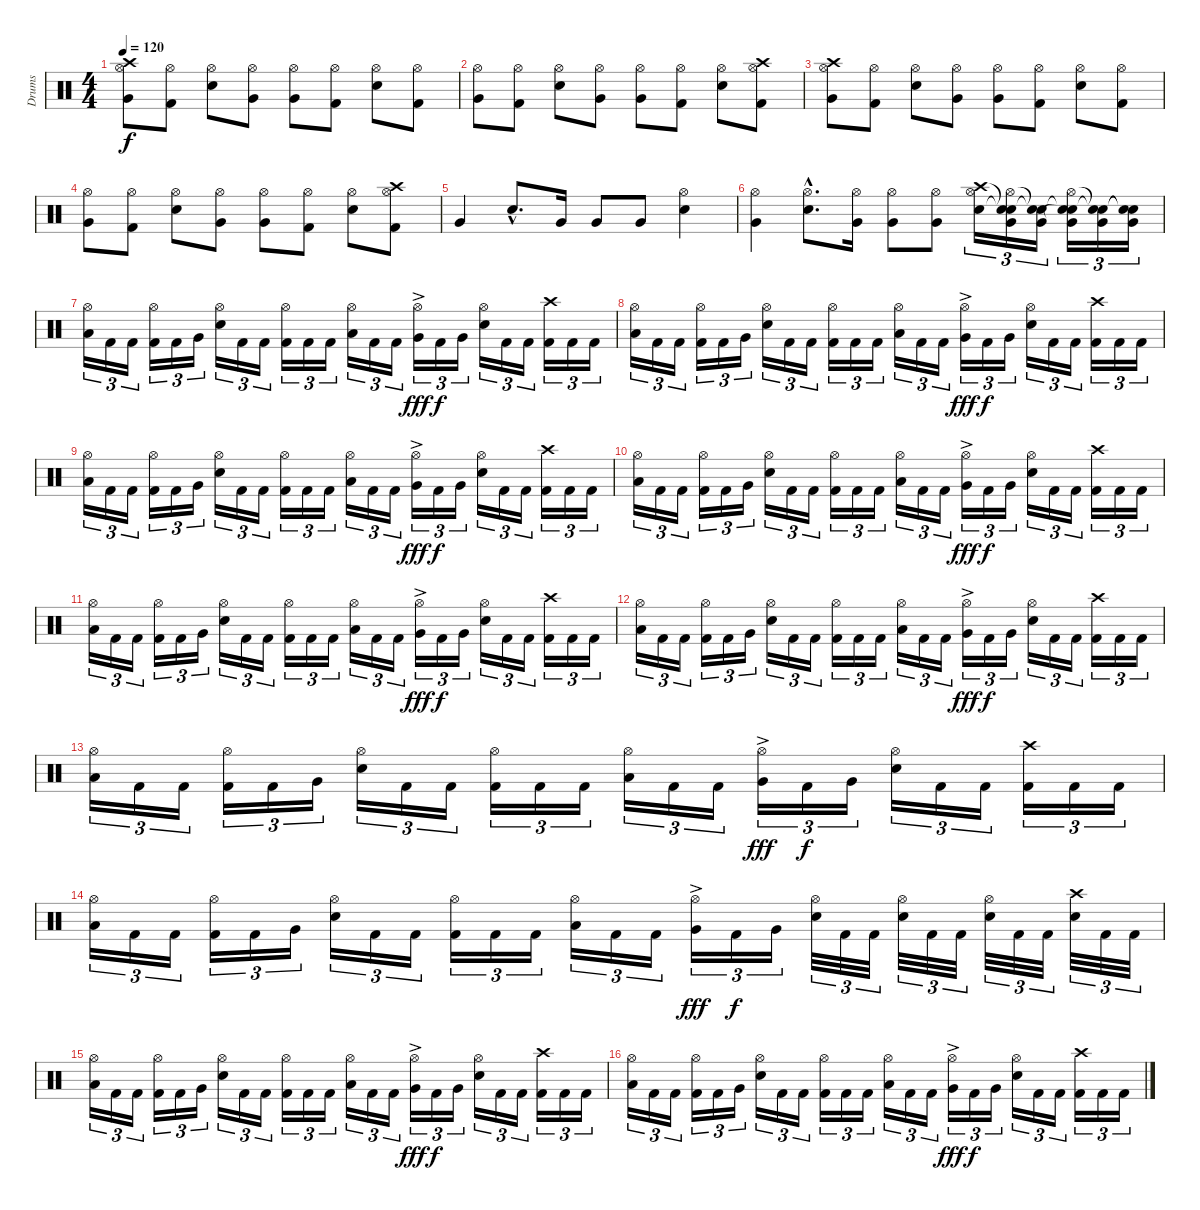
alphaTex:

\track ("Drums" "Drums") {instrument percussion}
\staff {score}
\articulation defaults
\ts (4 4)
\tempo 120
\clef neutral
\ks c
("Crash high (hit)" "Hi-Hat (open)" "Very Low Tom (hit)").8{dy f} ("Hi-Hat (open)" "Kick (hit) 2").8 ("Hi-Hat (open)" "Electric Snare (hit)").8 ("Hi-Hat (open)" "Very Low Tom (hit)").8 ("Hi-Hat (open)" "Very Low Tom (hit)").8 ("Hi-Hat (open)" "Kick (hit) 2").8 ("Hi-Hat (open)" "Electric Snare (hit)").8 ("Hi-Hat (open)" "Kick (hit) 2").8 |
("Hi-Hat (open)" "Very Low Tom (hit)").8 ("Hi-Hat (open)" "Kick (hit) 2").8 ("Hi-Hat (open)" "Electric Snare (hit)").8 ("Hi-Hat (open)" "Very Low Tom (hit)").8 ("Hi-Hat (open)" "Very Low Tom (hit)").8 ("Hi-Hat (open)" "Kick (hit) 2").8 ("Hi-Hat (open)" "Electric Snare (hit)").8 ("Crash high (hit)" "Hi-Hat (open)" "Kick (hit) 2").8 |
("Crash high (hit)" "Hi-Hat (open)" "Very Low Tom (hit)").8 ("Hi-Hat (open)" "Kick (hit) 2").8 ("Hi-Hat (open)" "Electric Snare (hit)").8 ("Hi-Hat (open)" "Very Low Tom (hit)").8 ("Hi-Hat (open)" "Very Low Tom (hit)").8 ("Hi-Hat (open)" "Kick (hit) 2").8 ("Hi-Hat (open)" "Electric Snare (hit)").8 ("Hi-Hat (open)" "Kick (hit) 2").8 |
("Hi-Hat (open)" "Very Low Tom (hit)").8 ("Hi-Hat (open)" "Kick (hit) 2").8 ("Hi-Hat (open)" "Electric Snare (hit)").8 ("Hi-Hat (open)" "Very Low Tom (hit)").8 ("Hi-Hat (open)" "Very Low Tom (hit)").8 ("Hi-Hat (open)" "Kick (hit) 2").8 ("Hi-Hat (open)" "Electric Snare (hit)").8 ("Crash high (hit)" "Hi-Hat (open)" "Kick (hit) 2").8 |
"Very Low Tom (hit)".4 "Electric Snare (hit)"{hac}.8{d} "Very Low Tom (hit)".16 "Very Low Tom (hit)".8 "Very Low Tom (hit)".8 ("Hi-Hat (open)" "Electric Snare (hit)").4 |
("Hi-Hat (open)" "Very Low Tom (hit)").4 ("Hi-Hat (open)"{hac} "Electric Snare (hit)"{hac}).8{d} ("Hi-Hat (open)" "Very Low Tom (hit)").16 ("Hi-Hat (open)" "Very Low Tom (hit)").8 ("Hi-Hat (open)" "Very Low Tom (hit)").8 ("Crash high (hit)" "Hi-Hat (open)" "Electric Snare (hit)").16{tu (3 2)} ("Snare (hit)"{t} "Hi-Hat (open)" "Snare (hit)"{t} "Very Low Tom (hit)").16{tu (3 2)} ("Snare (hit)"{t} "Snare (hit)"{t} "Very Low Tom (hit)").16{tu (3 2)} ("Snare (hit)"{t} "Hi-Hat (open)" "Snare (hit)"{t} "Very Low Tom (hit)").16{tu (3 2)} ("Snare (hit)"{t} "Snare (hit)"{t} "Very Low Tom (hit)").16{tu (3 2)} ("Snare (hit)"{t} "Snare (hit)"{t} "Very Low Tom (hit)").16{tu (3 2)} |
("Hi-Hat (open)" "Low Tom (hit)").16{tu (3 2)} "Kick (hit) 2".16{tu (3 2)} "Kick (hit) 2".16{tu (3 2)} ("Hi-Hat (open)" "Kick (hit) 2").16{tu (3 2)} "Kick (hit) 2".16{tu (3 2)} "Very Low Tom (hit)".16{tu (3 2)} ("Hi-Hat (open)" "Electric Snare (hit)").16{tu (3 2)} "Kick (hit) 2".16{tu (3 2)} "Kick (hit) 2".16{tu (3 2)} ("Hi-Hat (open)" "Kick (hit) 2").16{tu (3 2)} "Kick (hit) 2".16{tu (3 2)} "Kick (hit) 2".16{tu (3 2)} ("Hi-Hat (open)" "Low Tom (hit)").16{tu (3 2)} "Kick (hit) 2".16{tu (3 2)} "Kick (hit) 2".16{tu (3 2)} ("Hi-Hat (open)" "Very Low Tom (hit)"{ac}).16{tu (3 2) dy fff} "Kick (hit) 2".16{tu (3 2) dy f} "Very Low Tom (hit)".16{tu (3 2)} ("Hi-Hat (open)" "Electric Snare (hit)").16{tu (3 2)} "Kick (hit) 2".16{tu (3 2)} "Kick (hit) 2".16{tu (3 2)} ("Crash high (hit)" "Kick (hit) 2").16{tu (3 2)} "Kick (hit) 2".16{tu (3 2)} "Kick (hit) 2".16{tu (3 2)} |
("Hi-Hat (open)" "Low Tom (hit)").16{tu (3 2)} "Kick (hit) 2".16{tu (3 2)} "Kick (hit) 2".16{tu (3 2)} ("Hi-Hat (open)" "Kick (hit) 2").16{tu (3 2)} "Kick (hit) 2".16{tu (3 2)} "Very Low Tom (hit)".16{tu (3 2)} ("Hi-Hat (open)" "Electric Snare (hit)").16{tu (3 2)} "Kick (hit) 2".16{tu (3 2)} "Kick (hit) 2".16{tu (3 2)} ("Hi-Hat (open)" "Kick (hit) 2").16{tu (3 2)} "Kick (hit) 2".16{tu (3 2)} "Kick (hit) 2".16{tu (3 2)} ("Hi-Hat (open)" "Low Tom (hit)").16{tu (3 2)} "Kick (hit) 2".16{tu (3 2)} "Kick (hit) 2".16{tu (3 2)} ("Hi-Hat (open)" "Very Low Tom (hit)"{ac}).16{tu (3 2) dy fff} "Kick (hit) 2".16{tu (3 2) dy f} "Very Low Tom (hit)".16{tu (3 2)} ("Hi-Hat (open)" "Electric Snare (hit)").16{tu (3 2)} "Kick (hit) 2".16{tu (3 2)} "Kick (hit) 2".16{tu (3 2)} ("Crash high (hit)" "Kick (hit) 2").16{tu (3 2)} "Kick (hit) 2".16{tu (3 2)} "Kick (hit) 2".16{tu (3 2)} |
("Hi-Hat (open)" "Low Tom (hit)").16{tu (3 2)} "Kick (hit) 2".16{tu (3 2)} "Kick (hit) 2".16{tu (3 2)} ("Hi-Hat (open)" "Kick (hit) 2").16{tu (3 2)} "Kick (hit) 2".16{tu (3 2)} "Very Low Tom (hit)".16{tu (3 2)} ("Hi-Hat (open)" "Electric Snare (hit)").16{tu (3 2)} "Kick (hit) 2".16{tu (3 2)} "Kick (hit) 2".16{tu (3 2)} ("Hi-Hat (open)" "Kick (hit) 2").16{tu (3 2)} "Kick (hit) 2".16{tu (3 2)} "Kick (hit) 2".16{tu (3 2)} ("Hi-Hat (open)" "Low Tom (hit)").16{tu (3 2)} "Kick (hit) 2".16{tu (3 2)} "Kick (hit) 2".16{tu (3 2)} ("Hi-Hat (open)" "Very Low Tom (hit)"{ac}).16{tu (3 2) dy fff} "Kick (hit) 2".16{tu (3 2) dy f} "Very Low Tom (hit)".16{tu (3 2)} ("Hi-Hat (open)" "Electric Snare (hit)").16{tu (3 2)} "Kick (hit) 2".16{tu (3 2)} "Kick (hit) 2".16{tu (3 2)} ("Crash high (hit)" "Kick (hit) 2").16{tu (3 2)} "Kick (hit) 2".16{tu (3 2)} "Kick (hit) 2".16{tu (3 2)} |
("Hi-Hat (open)" "Low Tom (hit)").16{tu (3 2)} "Kick (hit) 2".16{tu (3 2)} "Kick (hit) 2".16{tu (3 2)} ("Hi-Hat (open)" "Kick (hit) 2").16{tu (3 2)} "Kick (hit) 2".16{tu (3 2)} "Very Low Tom (hit)".16{tu (3 2)} ("Hi-Hat (open)" "Electric Snare (hit)").16{tu (3 2)} "Kick (hit) 2".16{tu (3 2)} "Kick (hit) 2".16{tu (3 2)} ("Hi-Hat (open)" "Kick (hit) 2").16{tu (3 2)} "Kick (hit) 2".16{tu (3 2)} "Kick (hit) 2".16{tu (3 2)} ("Hi-Hat (open)" "Low Tom (hit)").16{tu (3 2)} "Kick (hit) 2".16{tu (3 2)} "Kick (hit) 2".16{tu (3 2)} ("Hi-Hat (open)" "Very Low Tom (hit)"{ac}).16{tu (3 2) dy fff} "Kick (hit) 2".16{tu (3 2) dy f} "Very Low Tom (hit)".16{tu (3 2)} ("Hi-Hat (open)" "Electric Snare (hit)").16{tu (3 2)} "Kick (hit) 2".16{tu (3 2)} "Kick (hit) 2".16{tu (3 2)} ("Crash high (hit)" "Kick (hit) 2").16{tu (3 2)} "Kick (hit) 2".16{tu (3 2)} "Kick (hit) 2".16{tu (3 2)} |
("Hi-Hat (open)" "Low Tom (hit)").16{tu (3 2)} "Kick (hit) 2".16{tu (3 2)} "Kick (hit) 2".16{tu (3 2)} ("Hi-Hat (open)" "Kick (hit) 2").16{tu (3 2)} "Kick (hit) 2".16{tu (3 2)} "Very Low Tom (hit)".16{tu (3 2)} ("Hi-Hat (open)" "Electric Snare (hit)").16{tu (3 2)} "Kick (hit) 2".16{tu (3 2)} "Kick (hit) 2".16{tu (3 2)} ("Hi-Hat (open)" "Kick (hit) 2").16{tu (3 2)} "Kick (hit) 2".16{tu (3 2)} "Kick (hit) 2".16{tu (3 2)} ("Hi-Hat (open)" "Low Tom (hit)").16{tu (3 2)} "Kick (hit) 2".16{tu (3 2)} "Kick (hit) 2".16{tu (3 2)} ("Hi-Hat (open)" "Very Low Tom (hit)"{ac}).16{tu (3 2) dy fff} "Kick (hit) 2".16{tu (3 2) dy f} "Very Low Tom (hit)".16{tu (3 2)} ("Hi-Hat (open)" "Electric Snare (hit)").16{tu (3 2)} "Kick (hit) 2".16{tu (3 2)} "Kick (hit) 2".16{tu (3 2)} ("Crash high (hit)" "Kick (hit) 2").16{tu (3 2)} "Kick (hit) 2".16{tu (3 2)} "Kick (hit) 2".16{tu (3 2)} |
("Hi-Hat (open)" "Low Tom (hit)").16{tu (3 2)} "Kick (hit) 2".16{tu (3 2)} "Kick (hit) 2".16{tu (3 2)} ("Hi-Hat (open)" "Kick (hit) 2").16{tu (3 2)} "Kick (hit) 2".16{tu (3 2)} "Very Low Tom (hit)".16{tu (3 2)} ("Hi-Hat (open)" "Electric Snare (hit)").16{tu (3 2)} "Kick (hit) 2".16{tu (3 2)} "Kick (hit) 2".16{tu (3 2)} ("Hi-Hat (open)" "Kick (hit) 2").16{tu (3 2)} "Kick (hit) 2".16{tu (3 2)} "Kick (hit) 2".16{tu (3 2)} ("Hi-Hat (open)" "Low Tom (hit)").16{tu (3 2)} "Kick (hit) 2".16{tu (3 2)} "Kick (hit) 2".16{tu (3 2)} ("Hi-Hat (open)" "Very Low Tom (hit)"{ac}).16{tu (3 2) dy fff} "Kick (hit) 2".16{tu (3 2) dy f} "Very Low Tom (hit)".16{tu (3 2)} ("Hi-Hat (open)" "Electric Snare (hit)").16{tu (3 2)} "Kick (hit) 2".16{tu (3 2)} "Kick (hit) 2".16{tu (3 2)} ("Crash high (hit)" "Kick (hit) 2").16{tu (3 2)} "Kick (hit) 2".16{tu (3 2)} "Kick (hit) 2".16{tu (3 2)} |
("Hi-Hat (open)" "Low Tom (hit)").16{tu (3 2)} "Kick (hit) 2".16{tu (3 2)} "Kick (hit) 2".16{tu (3 2)} ("Hi-Hat (open)" "Kick (hit) 2").16{tu (3 2)} "Kick (hit) 2".16{tu (3 2)} "Very Low Tom (hit)".16{tu (3 2)} ("Hi-Hat (open)" "Electric Snare (hit)").16{tu (3 2)} "Kick (hit) 2".16{tu (3 2)} "Kick (hit) 2".16{tu (3 2)} ("Hi-Hat (open)" "Kick (hit) 2").16{tu (3 2)} "Kick (hit) 2".16{tu (3 2)} "Kick (hit) 2".16{tu (3 2)} ("Hi-Hat (open)" "Low Tom (hit)").16{tu (3 2)} "Kick (hit) 2".16{tu (3 2)} "Kick (hit) 2".16{tu (3 2)} ("Hi-Hat (open)" "Very Low Tom (hit)"{ac}).16{tu (3 2) dy fff} "Kick (hit) 2".16{tu (3 2) dy f} "Very Low Tom (hit)".16{tu (3 2)} ("Hi-Hat (open)" "Electric Snare (hit)").16{tu (3 2)} "Kick (hit) 2".16{tu (3 2)} "Kick (hit) 2".16{tu (3 2)} ("Crash high (hit)" "Kick (hit) 2").16{tu (3 2)} "Kick (hit) 2".16{tu (3 2)} "Kick (hit) 2".16{tu (3 2)} |
("Hi-Hat (open)" "Low Tom (hit)").16{tu (3 2)} "Kick (hit) 2".16{tu (3 2)} "Kick (hit) 2".16{tu (3 2)} ("Hi-Hat (open)" "Kick (hit) 2").16{tu (3 2)} "Kick (hit) 2".16{tu (3 2)} "Very Low Tom (hit)".16{tu (3 2)} ("Hi-Hat (open)" "Electric Snare (hit)").16{tu (3 2)} "Kick (hit) 2".16{tu (3 2)} "Kick (hit) 2".16{tu (3 2)} ("Hi-Hat (open)" "Kick (hit) 2").16{tu (3 2)} "Kick (hit) 2".16{tu (3 2)} "Kick (hit) 2".16{tu (3 2)} ("Hi-Hat (open)" "Low Tom (hit)").16{tu (3 2)} "Kick (hit) 2".16{tu (3 2)} "Kick (hit) 2".16{tu (3 2)} ("Hi-Hat (open)" "Very Low Tom (hit)"{ac}).16{tu (3 2) dy fff} "Kick (hit) 2".16{tu (3 2) dy f} "Very Low Tom (hit)".16{tu (3 2)} ("Hi-Hat (open)" "Electric Snare (hit)").32{tu (3 2)} "Kick (hit) 2".32{tu (3 2)} "Kick (hit) 2".32{tu (3 2)} ("Hi-Hat (open)" "Electric Snare (hit)").32{tu (3 2)} "Kick (hit) 2".32{tu (3 2)} "Kick (hit) 2".32{tu (3 2)} ("Hi-Hat (open)" "Electric Snare (hit)").32{tu (3 2)} "Kick (hit) 2".32{tu (3 2)} "Kick (hit) 2".32{tu (3 2)} ("Crash high (hit)" "Electric Snare (hit)").32{tu (3 2)} "Kick (hit) 2".32{tu (3 2)} "Kick (hit) 2".32{tu (3 2)} |
("Hi-Hat (open)" "Low Tom (hit)").16{tu (3 2)} "Kick (hit) 2".16{tu (3 2)} "Kick (hit) 2".16{tu (3 2)} ("Hi-Hat (open)" "Kick (hit) 2").16{tu (3 2)} "Kick (hit) 2".16{tu (3 2)} "Very Low Tom (hit)".16{tu (3 2)} ("Hi-Hat (open)" "Electric Snare (hit)").16{tu (3 2)} "Kick (hit) 2".16{tu (3 2)} "Kick (hit) 2".16{tu (3 2)} ("Hi-Hat (open)" "Kick (hit) 2").16{tu (3 2)} "Kick (hit) 2".16{tu (3 2)} "Kick (hit) 2".16{tu (3 2)} ("Hi-Hat (open)" "Low Tom (hit)").16{tu (3 2)} "Kick (hit) 2".16{tu (3 2)} "Kick (hit) 2".16{tu (3 2)} ("Hi-Hat (open)" "Very Low Tom (hit)"{ac}).16{tu (3 2) dy fff} "Kick (hit) 2".16{tu (3 2) dy f} "Very Low Tom (hit)".16{tu (3 2)} ("Hi-Hat (open)" "Electric Snare (hit)").16{tu (3 2)} "Kick (hit) 2".16{tu (3 2)} "Kick (hit) 2".16{tu (3 2)} ("Crash high (hit)" "Kick (hit) 2").16{tu (3 2)} "Kick (hit) 2".16{tu (3 2)} "Kick (hit) 2".16{tu (3 2)} |
("Hi-Hat (open)" "Low Tom (hit)").16{tu (3 2)} "Kick (hit) 2".16{tu (3 2)} "Kick (hit) 2".16{tu (3 2)} ("Hi-Hat (open)" "Kick (hit) 2").16{tu (3 2)} "Kick (hit) 2".16{tu (3 2)} "Very Low Tom (hit)".16{tu (3 2)} ("Hi-Hat (open)" "Electric Snare (hit)").16{tu (3 2)} "Kick (hit) 2".16{tu (3 2)} "Kick (hit) 2".16{tu (3 2)} ("Hi-Hat (open)" "Kick (hit) 2").16{tu (3 2)} "Kick (hit) 2".16{tu (3 2)} "Kick (hit) 2".16{tu (3 2)} ("Hi-Hat (open)" "Low Tom (hit)").16{tu (3 2)} "Kick (hit) 2".16{tu (3 2)} "Kick (hit) 2".16{tu (3 2)} ("Hi-Hat (open)" "Very Low Tom (hit)"{ac}).16{tu (3 2) dy fff} "Kick (hit) 2".16{tu (3 2) dy f} "Very Low Tom (hit)".16{tu (3 2)} ("Hi-Hat (open)" "Electric Snare (hit)").16{tu (3 2)} "Kick (hit) 2".16{tu (3 2)} "Kick (hit) 2".16{tu (3 2)} ("Crash high (hit)" "Kick (hit) 2").16{tu (3 2)} "Kick (hit) 2".16{tu (3 2)} "Kick (hit) 2".16{tu (3 2)}
